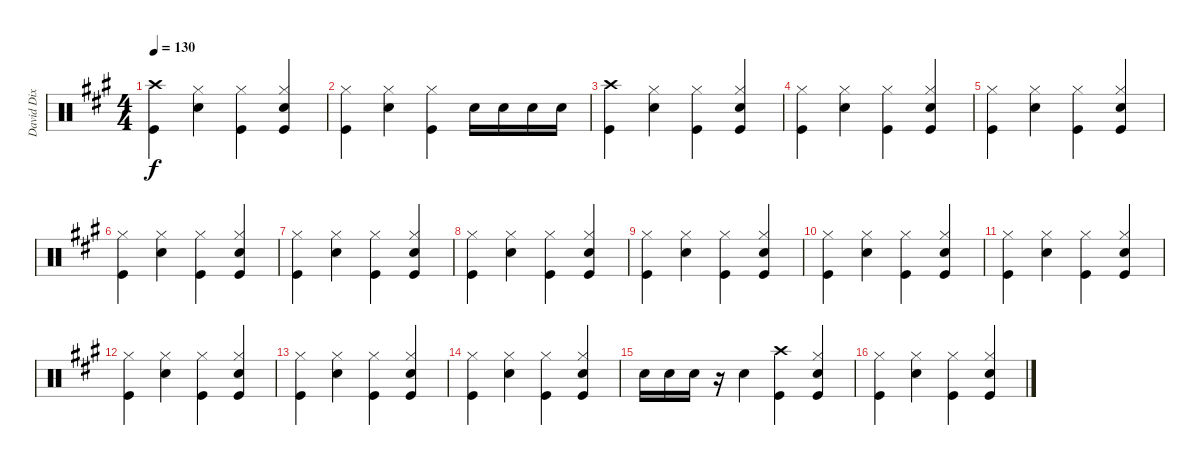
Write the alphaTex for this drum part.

\track ("David Dix Drums" "David Dix ") {instrument percussion}
\staff {score}
\articulation defaults
\ts (4 4)
\tempo 130
\clef neutral
\ks f#minor
("Crash high (hit)" "Kick (hit)").4{dy f} ("Hi-Hat (closed)" "Snare (hit) 2").4 ("Hi-Hat (closed)" "Kick (hit)").4 ("Hi-Hat (closed)" "Snare (hit) 2" "Kick (hit)").4 |
("Hi-Hat (closed)" "Kick (hit)").4 ("Hi-Hat (closed)" "Snare (hit) 2").4 ("Hi-Hat (closed)" "Kick (hit)").4 "Snare (hit) 2".16 "Snare (hit) 2".16 "Snare (hit) 2".16 "Snare (hit) 2".16 |
("Crash high (hit)" "Kick (hit)").4 ("Hi-Hat (closed)" "Snare (hit) 2").4 ("Hi-Hat (closed)" "Kick (hit)").4 ("Hi-Hat (closed)" "Snare (hit) 2" "Kick (hit)").4 |
("Hi-Hat (closed)" "Kick (hit)").4 ("Hi-Hat (closed)" "Snare (hit) 2").4 ("Hi-Hat (closed)" "Kick (hit)").4 ("Hi-Hat (closed)" "Snare (hit) 2" "Kick (hit)").4 |
("Hi-Hat (closed)" "Kick (hit)").4 ("Hi-Hat (closed)" "Snare (hit) 2").4 ("Hi-Hat (closed)" "Kick (hit)").4 ("Hi-Hat (closed)" "Snare (hit) 2" "Kick (hit)").4 |
("Hi-Hat (closed)" "Kick (hit)").4 ("Hi-Hat (closed)" "Snare (hit) 2").4 ("Hi-Hat (closed)" "Kick (hit)").4 ("Hi-Hat (closed)" "Snare (hit) 2" "Kick (hit)").4 |
("Hi-Hat (closed)" "Kick (hit)").4 ("Hi-Hat (closed)" "Snare (hit) 2").4 ("Hi-Hat (closed)" "Kick (hit)").4 ("Hi-Hat (closed)" "Snare (hit) 2" "Kick (hit)").4 |
("Hi-Hat (closed)" "Kick (hit)").4 ("Hi-Hat (closed)" "Snare (hit) 2").4 ("Hi-Hat (closed)" "Kick (hit)").4 ("Hi-Hat (closed)" "Snare (hit) 2" "Kick (hit)").4 |
("Hi-Hat (closed)" "Kick (hit)").4 ("Hi-Hat (closed)" "Snare (hit) 2").4 ("Hi-Hat (closed)" "Kick (hit)").4 ("Hi-Hat (closed)" "Snare (hit) 2" "Kick (hit)").4 |
("Hi-Hat (closed)" "Kick (hit)").4 ("Hi-Hat (closed)" "Snare (hit) 2").4 ("Hi-Hat (closed)" "Kick (hit)").4 ("Hi-Hat (closed)" "Snare (hit) 2" "Kick (hit)").4 |
("Hi-Hat (closed)" "Kick (hit)").4 ("Hi-Hat (closed)" "Snare (hit) 2").4 ("Hi-Hat (closed)" "Kick (hit)").4 ("Hi-Hat (closed)" "Snare (hit) 2" "Kick (hit)").4 |
("Hi-Hat (closed)" "Kick (hit)").4 ("Hi-Hat (closed)" "Snare (hit) 2").4 ("Hi-Hat (closed)" "Kick (hit)").4 ("Hi-Hat (closed)" "Snare (hit) 2" "Kick (hit)").4 |
("Hi-Hat (closed)" "Kick (hit)").4 ("Hi-Hat (closed)" "Snare (hit) 2").4 ("Hi-Hat (closed)" "Kick (hit)").4 ("Hi-Hat (closed)" "Snare (hit) 2" "Kick (hit)").4 |
("Hi-Hat (closed)" "Kick (hit)").4 ("Hi-Hat (closed)" "Snare (hit) 2").4 ("Hi-Hat (closed)" "Kick (hit)").4 ("Hi-Hat (closed)" "Snare (hit) 2" "Kick (hit)").4 |
"Snare (hit) 2".16{volume 14} "Snare (hit) 2".16 "Snare (hit) 2".16 r.16 "Snare (hit) 2".4 ("Crash high (hit)" "Kick (hit)").4 ("Hi-Hat (closed)" "Snare (hit) 2" "Kick (hit)").4 |
("Hi-Hat (closed)" "Kick (hit)").4 ("Hi-Hat (closed)" "Snare (hit) 2").4 ("Hi-Hat (closed)" "Kick (hit)").4 ("Hi-Hat (closed)" "Snare (hit) 2" "Kick (hit)").4
